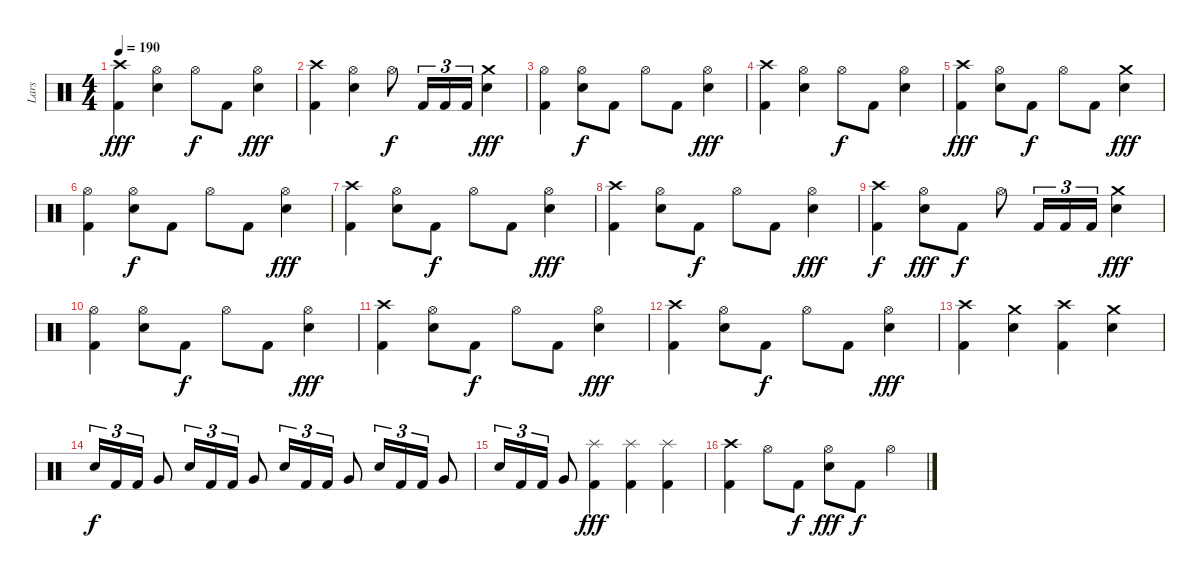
\track ("Lars" "Lars") {instrument percussion}
\staff {score}
\articulation defaults
\ts (4 4)
\tempo 190
\clef neutral
\ks c
("Crash high (hit)" "Kick (hit) 2").4{dy fff} ("Hi-Hat (open)" "Snare (hit) 2").4 "Hi-Hat (open)".8{dy f} "Kick (hit) 2".8 ("Hi-Hat (open)" "Snare (hit) 2").4{dy fff} |
("Crash high (hit)" "Kick (hit) 2").4 ("Hi-Hat (open)" "Snare (hit) 2").4 "Hi-Hat (open)".8{dy f} "Kick (hit) 2".16{tu (3 2)} "Kick (hit) 2".16{tu (3 2)} "Kick (hit) 2".16{tu (3 2)} ("Crash medium (hit)" "Snare (hit) 2").4{dy fff} |
("Hi-Hat (open)" "Kick (hit) 2").4 ("Hi-Hat (open)" "Snare (hit) 2").8{dy f} "Kick (hit) 2".8 "Hi-Hat (open)".8 "Kick (hit) 2".8 ("Hi-Hat (open)" "Snare (hit) 2").4{dy fff} |
("Crash high (hit)" "Kick (hit) 2").4 ("Hi-Hat (open)" "Snare (hit) 2").4 "Hi-Hat (open)".8{dy f} "Kick (hit) 2".8 ("Hi-Hat (open)" "Snare (hit) 2").4 |
("Crash high (hit)" "Kick (hit) 2").4{dy fff} ("Hi-Hat (open)" "Snare (hit) 2").8 "Kick (hit) 2".8{dy f} "Hi-Hat (open)".8 "Kick (hit) 2".8 ("Crash medium (hit)" "Snare (hit) 2").4{dy fff} |
("Hi-Hat (open)" "Kick (hit) 2").4 ("Hi-Hat (open)" "Snare (hit) 2").8{dy f} "Kick (hit) 2".8 "Hi-Hat (open)".8 "Kick (hit) 2".8 ("Hi-Hat (open)" "Snare (hit) 2").4{dy fff} |
("Crash high (hit)" "Kick (hit) 2").4 ("Hi-Hat (open)" "Snare (hit) 2").8 "Kick (hit) 2".8{dy f} "Hi-Hat (open)".8 "Kick (hit) 2".8 ("Hi-Hat (open)" "Snare (hit) 2").4{dy fff} |
("Crash high (hit)" "Kick (hit) 2").4 ("Hi-Hat (open)" "Snare (hit) 2").8 "Kick (hit) 2".8{dy f} "Hi-Hat (open)".8 "Kick (hit) 2".8 ("Hi-Hat (open)" "Snare (hit) 2").4{dy fff} |
("Crash high (hit)" "Kick (hit) 2").4{dy f} ("Hi-Hat (open)" "Snare (hit) 2").8{dy fff} "Kick (hit) 2".8{dy f} "Hi-Hat (open)".8 "Kick (hit) 2".16{tu (3 2)} "Kick (hit) 2".16{tu (3 2)} "Kick (hit) 2".16{tu (3 2)} ("Crash medium (hit)" "Snare (hit) 2").4{dy fff} |
("Hi-Hat (open)" "Kick (hit) 2").4 ("Hi-Hat (open)" "Snare (hit) 2").8 "Kick (hit) 2".8{dy f} "Hi-Hat (open)".8 "Kick (hit) 2".8 ("Hi-Hat (open)" "Snare (hit) 2").4{dy fff} |
("Crash high (hit)" "Kick (hit) 2").4 ("Hi-Hat (open)" "Snare (hit) 2").8 "Kick (hit) 2".8{dy f} "Hi-Hat (open)".8 "Kick (hit) 2".8 ("Hi-Hat (open)" "Snare (hit) 2").4{dy fff} |
("Crash high (hit)" "Kick (hit) 2").4 ("Hi-Hat (open)" "Snare (hit) 2").8 "Kick (hit) 2".8{dy f} "Hi-Hat (open)".8 "Kick (hit) 2".8 ("Hi-Hat (open)" "Snare (hit) 2").4{dy fff} |
("Crash high (hit)" "Kick (hit) 2").4 ("Crash medium (hit)" "Snare (hit) 2").4 ("Crash high (hit)" "Kick (hit) 2").4 ("Crash medium (hit)" "Snare (hit) 2").4 |
"Snare (hit) 2".16{tu (3 2) dy f} "Kick (hit) 2".16{tu (3 2)} "Kick (hit) 2".16{tu (3 2)} "Very Low Tom (hit)".8 "Snare (hit) 2".16{tu (3 2)} "Kick (hit) 2".16{tu (3 2)} "Kick (hit) 2".16{tu (3 2)} "Very Low Tom (hit)".8 "Snare (hit) 2".16{tu (3 2)} "Kick (hit) 2".16{tu (3 2)} "Kick (hit) 2".16{tu (3 2)} "Very Low Tom (hit)".8 "Snare (hit) 2".16{tu (3 2)} "Kick (hit) 2".16{tu (3 2)} "Kick (hit) 2".16{tu (3 2)} "Very Low Tom (hit)".8 |
"Snare (hit) 2".16{tu (3 2)} "Kick (hit) 2".16{tu (3 2)} "Kick (hit) 2".16{tu (3 2)} "Very Low Tom (hit)".8 ("Splash (hit)" "Kick (hit) 2").4{dy fff} ("Splash (hit)" "Kick (hit) 2").4 ("Splash (hit)" "Kick (hit) 2").4 |
("Crash high (hit)" "Kick (hit) 2").4 "Hi-Hat (open)".8 "Kick (hit) 2".8{dy f} ("Hi-Hat (open)" "Snare (hit) 2").8{dy fff} "Kick (hit) 2".8{dy f} "Hi-Hat (open)".4
